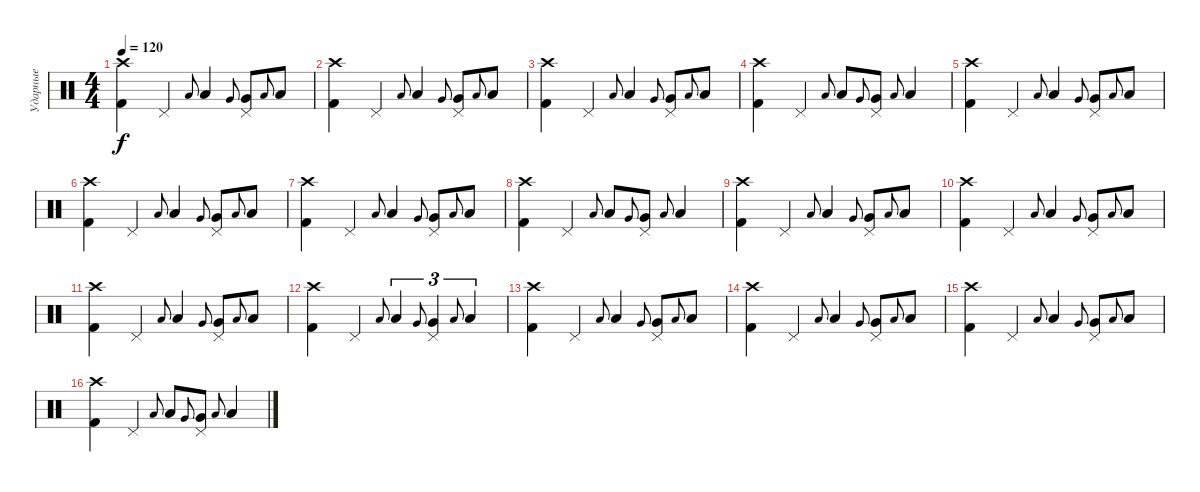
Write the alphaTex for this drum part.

\track ("Ударные" "Ударные") {instrument percussion}
\staff {score}
\articulation defaults
\ts (4 4)
\tempo 120
\clef neutral
\ks c
("Crash high (hit)" "Kick (hit) 2").4{dy f} "Pedal Hi-Hat (hit)".4 "Low Tom (hit)".8{gr onbeat} "Low Tom (hit)".4 "Very Low Tom (hit)".8{gr onbeat} ("Very Low Tom (hit)" "Pedal Hi-Hat (hit)").8 "Low Floor Tom (hit)".8{gr onbeat} "Low Floor Tom (hit)".8 |
("Crash high (hit)" "Kick (hit) 2").4 "Pedal Hi-Hat (hit)".4 "Low Tom (hit)".8{gr onbeat} "Low Tom (hit)".4 "Very Low Tom (hit)".8{gr onbeat} ("Very Low Tom (hit)" "Pedal Hi-Hat (hit)").8 "Low Floor Tom (hit)".8{gr onbeat} "Low Floor Tom (hit)".8 |
("Crash high (hit)" "Kick (hit) 2").4 "Pedal Hi-Hat (hit)".4 "Low Tom (hit)".8{gr onbeat} "Low Tom (hit)".4 "Very Low Tom (hit)".8{gr onbeat} ("Very Low Tom (hit)" "Pedal Hi-Hat (hit)").8 "Low Floor Tom (hit)".8{gr onbeat} "Low Floor Tom (hit)".8 |
("Crash high (hit)" "Kick (hit) 2").4 "Pedal Hi-Hat (hit)".4 "Low Tom (hit)".8{gr onbeat} "Low Tom (hit)".8 "Very Low Tom (hit)".8{gr onbeat} ("Very Low Tom (hit)" "Pedal Hi-Hat (hit)").8 "Low Floor Tom (hit)".8{gr onbeat} "Low Floor Tom (hit)".4 |
("Crash high (hit)" "Kick (hit) 2").4 "Pedal Hi-Hat (hit)".4 "Low Tom (hit)".8{gr onbeat} "Low Tom (hit)".4 "Very Low Tom (hit)".8{gr onbeat} ("Very Low Tom (hit)" "Pedal Hi-Hat (hit)").8 "Low Floor Tom (hit)".8{gr onbeat} "Low Floor Tom (hit)".8 |
("Crash high (hit)" "Kick (hit) 2").4 "Pedal Hi-Hat (hit)".4 "Low Tom (hit)".8{gr onbeat} "Low Tom (hit)".4 "Very Low Tom (hit)".8{gr onbeat} ("Very Low Tom (hit)" "Pedal Hi-Hat (hit)").8 "Low Floor Tom (hit)".8{gr onbeat} "Low Floor Tom (hit)".8 |
("Crash high (hit)" "Kick (hit) 2").4 "Pedal Hi-Hat (hit)".4 "Low Tom (hit)".8{gr onbeat} "Low Tom (hit)".4 "Very Low Tom (hit)".8{gr onbeat} ("Very Low Tom (hit)" "Pedal Hi-Hat (hit)").8 "Low Floor Tom (hit)".8{gr onbeat} "Low Floor Tom (hit)".8 |
("Crash high (hit)" "Kick (hit) 2").4 "Pedal Hi-Hat (hit)".4 "Low Tom (hit)".8{gr onbeat} "Low Tom (hit)".8 "Very Low Tom (hit)".8{gr onbeat} ("Very Low Tom (hit)" "Pedal Hi-Hat (hit)").8 "Low Floor Tom (hit)".8{gr onbeat} "Low Floor Tom (hit)".4 |
("Crash high (hit)" "Kick (hit) 2").4 "Pedal Hi-Hat (hit)".4 "Low Tom (hit)".8{gr onbeat} "Low Tom (hit)".4 "Very Low Tom (hit)".8{gr onbeat} ("Very Low Tom (hit)" "Pedal Hi-Hat (hit)").8 "Low Floor Tom (hit)".8{gr onbeat} "Low Floor Tom (hit)".8 |
("Crash high (hit)" "Kick (hit) 2").4 "Pedal Hi-Hat (hit)".4 "Low Tom (hit)".8{gr onbeat} "Low Tom (hit)".4 "Very Low Tom (hit)".8{gr onbeat} ("Very Low Tom (hit)" "Pedal Hi-Hat (hit)").8 "Low Floor Tom (hit)".8{gr onbeat} "Low Floor Tom (hit)".8 |
("Crash high (hit)" "Kick (hit) 2").4 "Pedal Hi-Hat (hit)".4 "Low Tom (hit)".8{gr onbeat} "Low Tom (hit)".4 "Very Low Tom (hit)".8{gr onbeat} ("Very Low Tom (hit)" "Pedal Hi-Hat (hit)").8 "Low Floor Tom (hit)".8{gr onbeat} "Low Floor Tom (hit)".8 |
("Crash high (hit)" "Kick (hit) 2").4 "Pedal Hi-Hat (hit)".4 "Low Tom (hit)".8{gr onbeat} "Low Tom (hit)".4{tu (3 2)} "Very Low Tom (hit)".8{gr onbeat} ("Very Low Tom (hit)" "Pedal Hi-Hat (hit)").4{tu (3 2)} "Low Floor Tom (hit)".8{gr onbeat} "Low Floor Tom (hit)".4{tu (3 2)} |
("Crash high (hit)" "Kick (hit) 2").4 "Pedal Hi-Hat (hit)".4 "Low Tom (hit)".8{gr onbeat} "Low Tom (hit)".4 "Very Low Tom (hit)".8{gr onbeat} ("Very Low Tom (hit)" "Pedal Hi-Hat (hit)").8 "Low Floor Tom (hit)".8{gr onbeat} "Low Floor Tom (hit)".8 |
("Crash high (hit)" "Kick (hit) 2").4 "Pedal Hi-Hat (hit)".4 "Low Tom (hit)".8{gr onbeat} "Low Tom (hit)".4 "Very Low Tom (hit)".8{gr onbeat} ("Very Low Tom (hit)" "Pedal Hi-Hat (hit)").8 "Low Floor Tom (hit)".8{gr onbeat} "Low Floor Tom (hit)".8 |
("Crash high (hit)" "Kick (hit) 2").4 "Pedal Hi-Hat (hit)".4 "Low Tom (hit)".8{gr onbeat} "Low Tom (hit)".4 "Very Low Tom (hit)".8{gr onbeat} ("Very Low Tom (hit)" "Pedal Hi-Hat (hit)").8 "Low Floor Tom (hit)".8{gr onbeat} "Low Floor Tom (hit)".8 |
("Crash high (hit)" "Kick (hit) 2").4 "Pedal Hi-Hat (hit)".4 "Low Tom (hit)".8{gr onbeat} "Low Tom (hit)".8 "Very Low Tom (hit)".8{gr onbeat} ("Very Low Tom (hit)" "Pedal Hi-Hat (hit)").8 "Low Floor Tom (hit)".8{gr onbeat} "Low Floor Tom (hit)".4
